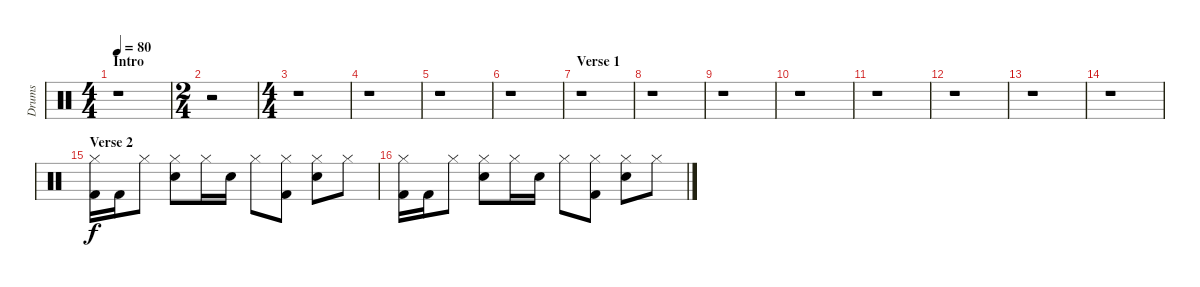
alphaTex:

\track ("Drums" "Drums") {instrument percussion}
\staff {score}
\articulation defaults
\ts (4 4)
\section ("" "Intro ")
\tempo 80
\clef neutral
\ks c
r.1{dy f} |
\ts (2 4)
r.2 |
\ts (4 4)
r.1 |
r.1 |
r.1 |
r.1 |
\section ("" "Verse 1")
r.1 |
r.1 |
r.1 |
r.1 |
r.1 |
r.1 |
r.1 |
r.1 |
\section ("" "Verse 2")
("Hi-Hat (closed)" "Kick (hit) 2").16 "Kick (hit) 2".16 "Hi-Hat (closed)".8 ("Hi-Hat (closed)" "Electric Snare (hit)").8 "Hi-Hat (closed)".16 "Electric Snare (hit)".16 "Hi-Hat (closed)".8 ("Hi-Hat (closed)" "Kick (hit) 2").8 ("Hi-Hat (closed)" "Electric Snare (hit)").8 "Hi-Hat (closed)".8 |
("Hi-Hat (closed)" "Kick (hit) 2").16 "Kick (hit) 2".16 "Hi-Hat (closed)".8 ("Hi-Hat (closed)" "Electric Snare (hit)").8 "Hi-Hat (closed)".16 "Electric Snare (hit)".16 "Hi-Hat (closed)".8 ("Hi-Hat (closed)" "Kick (hit) 2").8 ("Hi-Hat (closed)" "Electric Snare (hit)").8 "Hi-Hat (closed)".8
